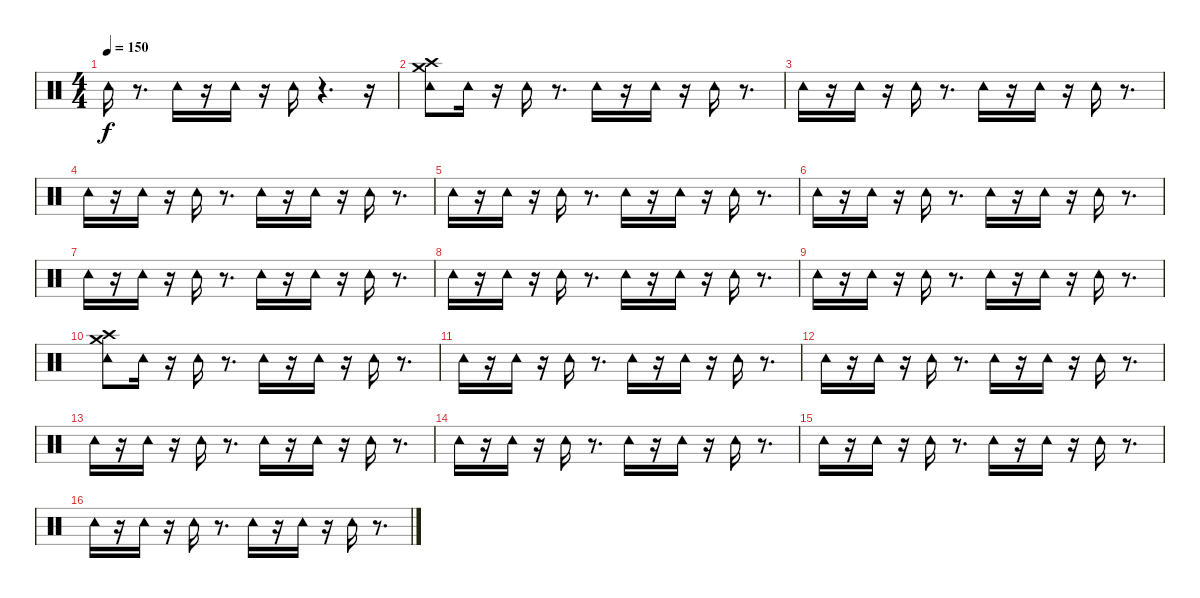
\track "" {instrument percussion}
\staff {score}
\articulation defaults
\ts (4 4)
\tempo 150
\clef neutral
\ks c "Tambourine (hit)".16{dy f}
r.8{d} "Tambourine (hit)".16 r.16 "Tambourine (hit)".16 r.16 "Tambourine (hit)".16 r.4{d} r.16 |
("Crash medium (hit)" "Crash high (hit)" "Tambourine (hit)").8 "Tambourine (hit)".16 r.16 "Tambourine (hit)".16 r.8{d} "Tambourine (hit)".16 r.16 "Tambourine (hit)".16 r.16 "Tambourine (hit)".16 r.8{d} |
"Tambourine (hit)".16 r.16 "Tambourine (hit)".16 r.16 "Tambourine (hit)".16 r.8{d} "Tambourine (hit)".16 r.16 "Tambourine (hit)".16 r.16 "Tambourine (hit)".16 r.8{d} |
"Tambourine (hit)".16 r.16 "Tambourine (hit)".16 r.16 "Tambourine (hit)".16 r.8{d} "Tambourine (hit)".16 r.16 "Tambourine (hit)".16 r.16 "Tambourine (hit)".16 r.8{d} |
"Tambourine (hit)".16 r.16 "Tambourine (hit)".16 r.16 "Tambourine (hit)".16 r.8{d} "Tambourine (hit)".16 r.16 "Tambourine (hit)".16 r.16 "Tambourine (hit)".16 r.8{d} |
"Tambourine (hit)".16 r.16 "Tambourine (hit)".16 r.16 "Tambourine (hit)".16 r.8{d} "Tambourine (hit)".16 r.16 "Tambourine (hit)".16 r.16 "Tambourine (hit)".16 r.8{d} |
"Tambourine (hit)".16 r.16 "Tambourine (hit)".16 r.16 "Tambourine (hit)".16 r.8{d} "Tambourine (hit)".16 r.16 "Tambourine (hit)".16 r.16 "Tambourine (hit)".16 r.8{d} |
"Tambourine (hit)".16 r.16 "Tambourine (hit)".16 r.16 "Tambourine (hit)".16 r.8{d} "Tambourine (hit)".16 r.16 "Tambourine (hit)".16 r.16 "Tambourine (hit)".16 r.8{d} |
"Tambourine (hit)".16 r.16 "Tambourine (hit)".16 r.16 "Tambourine (hit)".16 r.8{d} "Tambourine (hit)".16 r.16 "Tambourine (hit)".16 r.16 "Tambourine (hit)".16 r.8{d} |
("Crash medium (hit)" "Crash high (hit)" "Tambourine (hit)").8 "Tambourine (hit)".16 r.16 "Tambourine (hit)".16 r.8{d} "Tambourine (hit)".16 r.16 "Tambourine (hit)".16 r.16 "Tambourine (hit)".16 r.8{d} |
"Tambourine (hit)".16 r.16 "Tambourine (hit)".16 r.16 "Tambourine (hit)".16 r.8{d} "Tambourine (hit)".16 r.16 "Tambourine (hit)".16 r.16 "Tambourine (hit)".16 r.8{d} |
"Tambourine (hit)".16 r.16 "Tambourine (hit)".16 r.16 "Tambourine (hit)".16 r.8{d} "Tambourine (hit)".16 r.16 "Tambourine (hit)".16 r.16 "Tambourine (hit)".16 r.8{d} |
"Tambourine (hit)".16 r.16 "Tambourine (hit)".16 r.16 "Tambourine (hit)".16 r.8{d} "Tambourine (hit)".16 r.16 "Tambourine (hit)".16 r.16 "Tambourine (hit)".16 r.8{d} |
"Tambourine (hit)".16 r.16 "Tambourine (hit)".16 r.16 "Tambourine (hit)".16 r.8{d} "Tambourine (hit)".16 r.16 "Tambourine (hit)".16 r.16 "Tambourine (hit)".16 r.8{d} |
"Tambourine (hit)".16 r.16 "Tambourine (hit)".16 r.16 "Tambourine (hit)".16 r.8{d} "Tambourine (hit)".16 r.16 "Tambourine (hit)".16 r.16 "Tambourine (hit)".16 r.8{d} |
"Tambourine (hit)".16 r.16 "Tambourine (hit)".16 r.16 "Tambourine (hit)".16 r.8{d} "Tambourine (hit)".16 r.16 "Tambourine (hit)".16 r.16 "Tambourine (hit)".16 r.8{d}
